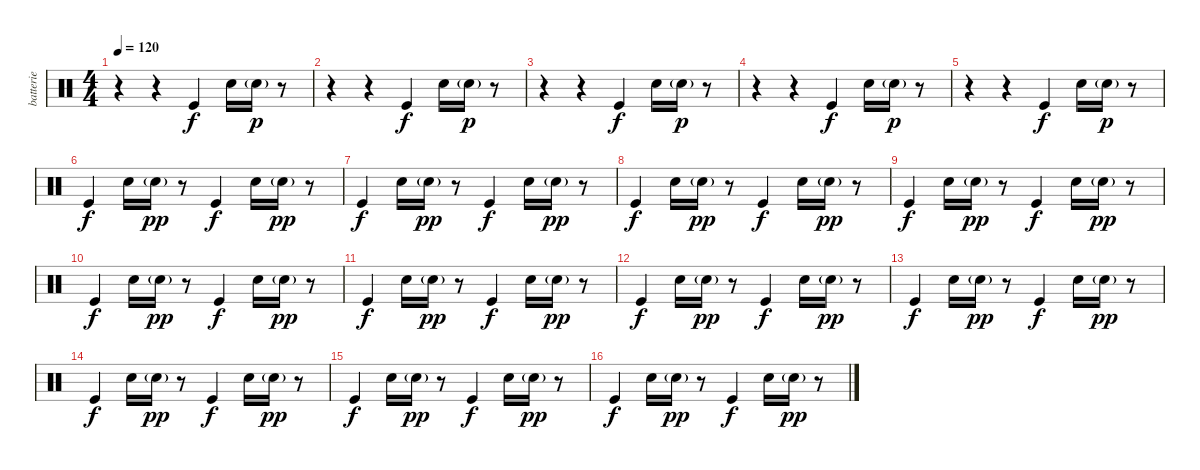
\track ("batterie" "batterie") {instrument percussion}
\staff {score}
\articulation defaults
\ts (4 4)
\tempo 120
\clef neutral
\ks c
r.4{dy p} r.4 "Kick (hit)".4{dy f} "Electric Snare (hit)".16 "Electric Snare (hit)"{g}.16{dy p} r.8 |
r.4 r.4 "Kick (hit)".4{dy f} "Electric Snare (hit)".16 "Electric Snare (hit)"{g}.16{dy p} r.8 |
r.4 r.4 "Kick (hit)".4{dy f} "Electric Snare (hit)".16 "Electric Snare (hit)"{g}.16{dy p} r.8 |
r.4 r.4 "Kick (hit)".4{dy f} "Electric Snare (hit)".16 "Electric Snare (hit)"{g}.16{dy p} r.8 |
r.4 r.4 "Kick (hit)".4{dy f} "Electric Snare (hit)".16 "Electric Snare (hit)"{g}.16{dy p} r.8 |
"Kick (hit)".4{dy f} "Electric Snare (hit)".16 "Electric Snare (hit)"{g}.16{dy pp} r.8 "Kick (hit)".4{dy f} "Electric Snare (hit)".16 "Electric Snare (hit)"{g}.16{dy pp} r.8 |
"Kick (hit)".4{dy f} "Electric Snare (hit)".16 "Electric Snare (hit)"{g}.16{dy pp} r.8 "Kick (hit)".4{dy f} "Electric Snare (hit)".16 "Electric Snare (hit)"{g}.16{dy pp} r.8 |
"Kick (hit)".4{dy f} "Electric Snare (hit)".16 "Electric Snare (hit)"{g}.16{dy pp} r.8 "Kick (hit)".4{dy f} "Electric Snare (hit)".16 "Electric Snare (hit)"{g}.16{dy pp} r.8 |
"Kick (hit)".4{dy f} "Electric Snare (hit)".16 "Electric Snare (hit)"{g}.16{dy pp} r.8 "Kick (hit)".4{dy f} "Electric Snare (hit)".16 "Electric Snare (hit)"{g}.16{dy pp} r.8 |
"Kick (hit)".4{dy f} "Electric Snare (hit)".16 "Electric Snare (hit)"{g}.16{dy pp} r.8 "Kick (hit)".4{dy f} "Electric Snare (hit)".16 "Electric Snare (hit)"{g}.16{dy pp} r.8 |
"Kick (hit)".4{dy f} "Electric Snare (hit)".16 "Electric Snare (hit)"{g}.16{dy pp} r.8 "Kick (hit)".4{dy f} "Electric Snare (hit)".16 "Electric Snare (hit)"{g}.16{dy pp} r.8 |
"Kick (hit)".4{dy f} "Electric Snare (hit)".16 "Electric Snare (hit)"{g}.16{dy pp} r.8 "Kick (hit)".4{dy f} "Electric Snare (hit)".16 "Electric Snare (hit)"{g}.16{dy pp} r.8 |
"Kick (hit)".4{dy f} "Electric Snare (hit)".16 "Electric Snare (hit)"{g}.16{dy pp} r.8 "Kick (hit)".4{dy f} "Electric Snare (hit)".16 "Electric Snare (hit)"{g}.16{dy pp} r.8 |
"Kick (hit)".4{dy f} "Electric Snare (hit)".16 "Electric Snare (hit)"{g}.16{dy pp} r.8 "Kick (hit)".4{dy f} "Electric Snare (hit)".16 "Electric Snare (hit)"{g}.16{dy pp} r.8 |
"Kick (hit)".4{dy f} "Electric Snare (hit)".16 "Electric Snare (hit)"{g}.16{dy pp} r.8 "Kick (hit)".4{dy f} "Electric Snare (hit)".16 "Electric Snare (hit)"{g}.16{dy pp} r.8 |
"Kick (hit)".4{dy f} "Electric Snare (hit)".16 "Electric Snare (hit)"{g}.16{dy pp} r.8 "Kick (hit)".4{dy f} "Electric Snare (hit)".16 "Electric Snare (hit)"{g}.16{dy pp} r.8
